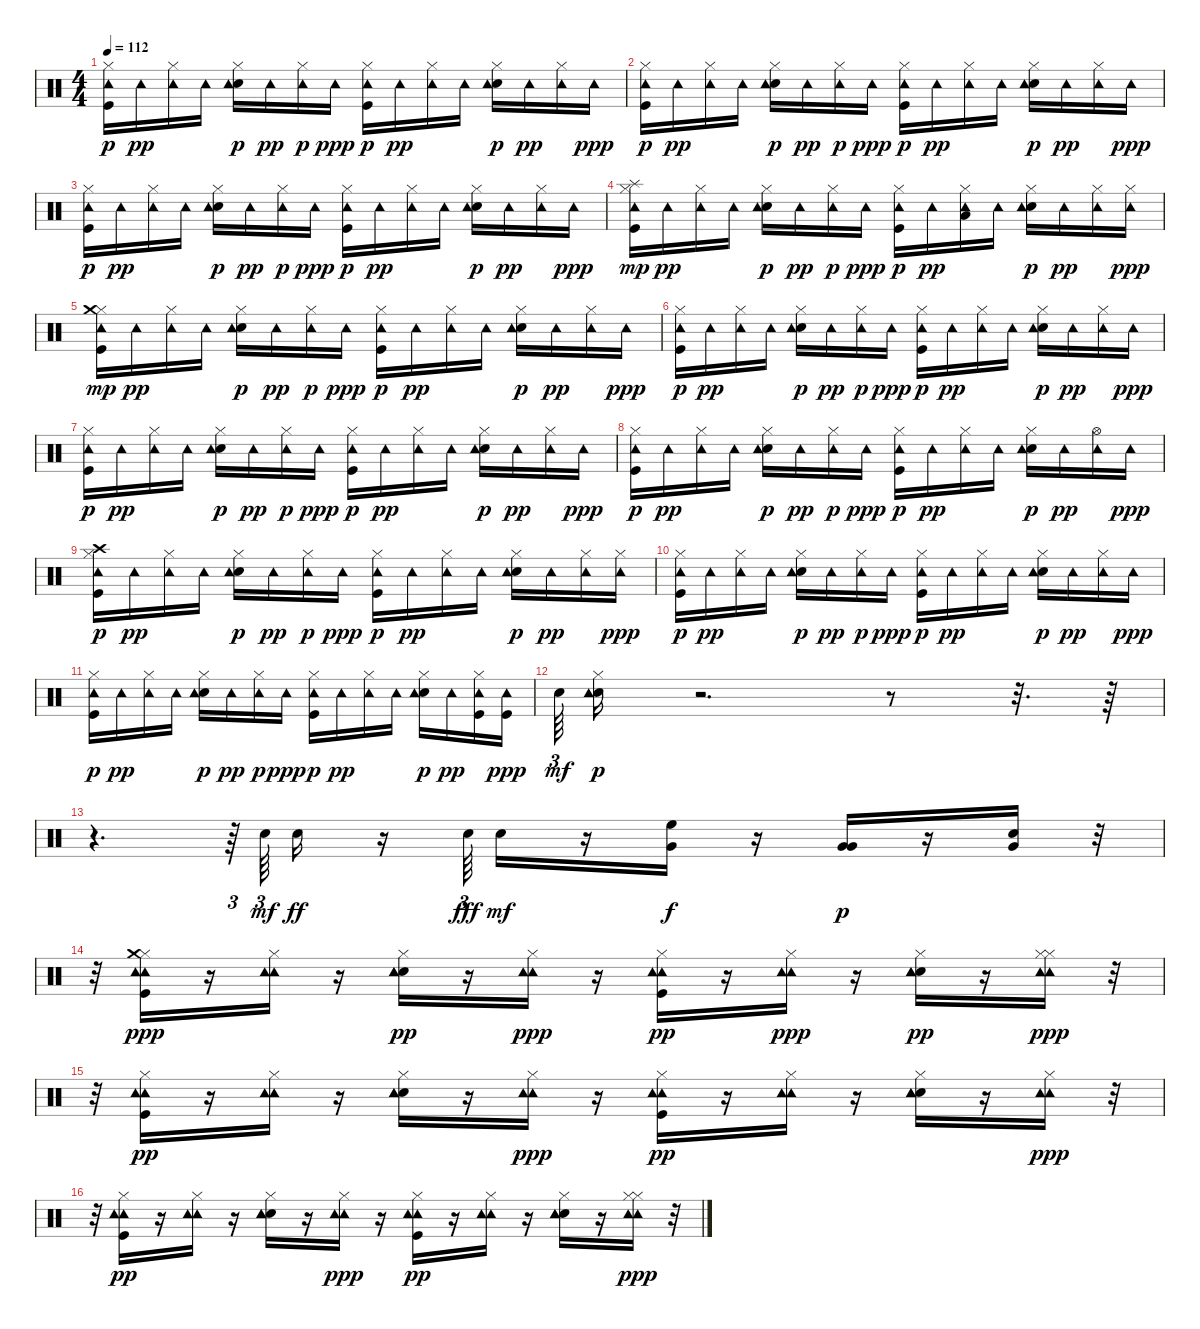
\track "" {instrument percussion}
\staff {score}
\articulation defaults
\ts (4 4)
\tempo 112
\clef neutral
\ks c
("Kick (hit)" "Hi-Hat (closed)" "Tambourine (hit)").16{dy p} "Tambourine (hit)".16{dy pp} ("Hi-Hat (closed)" "Tambourine (hit)").16 "Tambourine (hit)".16 ("Electric Snare (hit)" "Hi-Hat (closed)" "Tambourine (hit)").16{dy p} "Tambourine (hit)".16{dy pp} ("Hi-Hat (closed)" "Tambourine (hit)").16{dy p} "Tambourine (hit)".16{dy ppp} ("Kick (hit)" "Hi-Hat (closed)" "Tambourine (hit)").16{dy p} "Tambourine (hit)".16{dy pp} ("Hi-Hat (closed)" "Tambourine (hit)").16 "Tambourine (hit)".16 ("Electric Snare (hit)" "Hi-Hat (closed)" "Tambourine (hit)").16{dy p} "Tambourine (hit)".16{dy pp} ("Hi-Hat (closed)" "Tambourine (hit)").16 "Tambourine (hit)".16{dy ppp} |
("Kick (hit)" "Hi-Hat (closed)" "Tambourine (hit)").16{dy p} "Tambourine (hit)".16{dy pp} ("Hi-Hat (closed)" "Tambourine (hit)").16 "Tambourine (hit)".16 ("Electric Snare (hit)" "Hi-Hat (closed)" "Tambourine (hit)").16{dy p} "Tambourine (hit)".16{dy pp} ("Hi-Hat (closed)" "Tambourine (hit)").16{dy p} "Tambourine (hit)".16{dy ppp} ("Kick (hit)" "Hi-Hat (closed)" "Tambourine (hit)").16{dy p} "Tambourine (hit)".16{dy pp} ("Hi-Hat (closed)" "Tambourine (hit)").16 "Tambourine (hit)".16 ("Electric Snare (hit)" "Hi-Hat (closed)" "Tambourine (hit)").16{dy p} "Tambourine (hit)".16{dy pp} ("Hi-Hat (closed)" "Tambourine (hit)").16 "Tambourine (hit)".16{dy ppp} |
("Kick (hit)" "Hi-Hat (closed)" "Tambourine (hit)").16{dy p} "Tambourine (hit)".16{dy pp} ("Hi-Hat (closed)" "Tambourine (hit)").16 "Tambourine (hit)".16 ("Electric Snare (hit)" "Hi-Hat (closed)" "Tambourine (hit)").16{dy p} "Tambourine (hit)".16{dy pp} ("Hi-Hat (closed)" "Tambourine (hit)").16{dy p} "Tambourine (hit)".16{dy ppp} ("Kick (hit)" "Hi-Hat (closed)" "Tambourine (hit)").16{dy p} "Tambourine (hit)".16{dy pp} ("Hi-Hat (closed)" "Tambourine (hit)").16 "Tambourine (hit)".16 ("Electric Snare (hit)" "Hi-Hat (closed)" "Tambourine (hit)").16{dy p} "Tambourine (hit)".16{dy pp} ("Hi-Hat (closed)" "Tambourine (hit)").16 "Tambourine (hit)".16{dy ppp} |
("Kick (hit)" "Hi-Hat (closed)" "Tambourine (hit)" "Splash (hit)").16{dy mp} "Tambourine (hit)".16{dy pp} ("Hi-Hat (closed)" "Tambourine (hit)").16 "Tambourine (hit)".16 ("Electric Snare (hit)" "Hi-Hat (closed)" "Tambourine (hit)").16{dy p} "Tambourine (hit)".16{dy pp} ("Hi-Hat (closed)" "Tambourine (hit)").16{dy p} "Tambourine (hit)".16{dy ppp} ("Kick (hit)" "Hi-Hat (closed)" "Tambourine (hit)").16{dy p} "Tambourine (hit)".16{dy pp} ("Hi-Hat (closed)" "Low Tom (hit)" "Tambourine (hit)").16 "Tambourine (hit)".16 ("Electric Snare (hit)" "Hi-Hat (closed)" "Tambourine (hit)").16{dy p} "Tambourine (hit)".16{dy pp} ("Hi-Hat (closed)" "Tambourine (hit)").16 ("Hi-Hat (closed)" "Tambourine (hit)").16{dy ppp} |
("Kick (hit)" "Hi-Hat (closed)" "Tambourine (hit)" "Crash medium (hit)").16{dy mp} "Tambourine (hit)".16{dy pp} ("Hi-Hat (closed)" "Tambourine (hit)").16 "Tambourine (hit)".16 ("Electric Snare (hit)" "Hi-Hat (closed)" "Tambourine (hit)").16{dy p} "Tambourine (hit)".16{dy pp} ("Hi-Hat (closed)" "Tambourine (hit)").16{dy p} "Tambourine (hit)".16{dy ppp} ("Kick (hit)" "Hi-Hat (closed)" "Tambourine (hit)").16{dy p} "Tambourine (hit)".16{dy pp} ("Hi-Hat (closed)" "Tambourine (hit)").16 "Tambourine (hit)".16 ("Electric Snare (hit)" "Hi-Hat (closed)" "Tambourine (hit)").16{dy p} "Tambourine (hit)".16{dy pp} ("Hi-Hat (closed)" "Tambourine (hit)").16 "Tambourine (hit)".16{dy ppp} |
("Kick (hit)" "Hi-Hat (closed)" "Tambourine (hit)").16{dy p} "Tambourine (hit)".16{dy pp} ("Hi-Hat (closed)" "Tambourine (hit)").16 "Tambourine (hit)".16 ("Electric Snare (hit)" "Hi-Hat (closed)" "Tambourine (hit)").16{dy p} "Tambourine (hit)".16{dy pp} ("Hi-Hat (closed)" "Tambourine (hit)").16{dy p} "Tambourine (hit)".16{dy ppp} ("Kick (hit)" "Hi-Hat (closed)" "Tambourine (hit)").16{dy p} "Tambourine (hit)".16{dy pp} ("Hi-Hat (closed)" "Tambourine (hit)").16 "Tambourine (hit)".16 ("Electric Snare (hit)" "Hi-Hat (closed)" "Tambourine (hit)").16{dy p} "Tambourine (hit)".16{dy pp} ("Hi-Hat (closed)" "Tambourine (hit)").16 "Tambourine (hit)".16{dy ppp} |
("Kick (hit)" "Hi-Hat (closed)" "Tambourine (hit)").16{dy p} "Tambourine (hit)".16{dy pp} ("Hi-Hat (closed)" "Tambourine (hit)").16 "Tambourine (hit)".16 ("Electric Snare (hit)" "Hi-Hat (closed)" "Tambourine (hit)").16{dy p} "Tambourine (hit)".16{dy pp} ("Hi-Hat (closed)" "Tambourine (hit)").16{dy p} "Tambourine (hit)".16{dy ppp} ("Kick (hit)" "Hi-Hat (closed)" "Tambourine (hit)").16{dy p} "Tambourine (hit)".16{dy pp} ("Hi-Hat (closed)" "Tambourine (hit)").16 "Tambourine (hit)".16 ("Electric Snare (hit)" "Hi-Hat (closed)" "Tambourine (hit)").16{dy p} "Tambourine (hit)".16{dy pp} ("Hi-Hat (closed)" "Tambourine (hit)").16 "Tambourine (hit)".16{dy ppp} |
("Kick (hit)" "Hi-Hat (closed)" "Tambourine (hit)").16{dy p} "Tambourine (hit)".16{dy pp} ("Hi-Hat (closed)" "Tambourine (hit)").16 "Tambourine (hit)".16 ("Electric Snare (hit)" "Hi-Hat (closed)" "Tambourine (hit)").16{dy p} "Tambourine (hit)".16{dy pp} ("Hi-Hat (closed)" "Tambourine (hit)").16{dy p} "Tambourine (hit)".16{dy ppp} ("Kick (hit)" "Hi-Hat (closed)" "Tambourine (hit)").16{dy p} "Tambourine (hit)".16{dy pp} ("Hi-Hat (closed)" "Tambourine (hit)").16 "Tambourine (hit)".16 ("Electric Snare (hit)" "Hi-Hat (closed)" "Tambourine (hit)").16{dy p} "Tambourine (hit)".16{dy pp} ("Hi-Hat (open)" "Tambourine (hit)").16 "Tambourine (hit)".16{dy ppp} |
("Kick (hit)" "Hi-Hat (closed)" "Crash high (hit)" "Tambourine (hit)").16{dy p} "Tambourine (hit)".16{dy pp} ("Hi-Hat (closed)" "Tambourine (hit)").16 "Tambourine (hit)".16 ("Electric Snare (hit)" "Hi-Hat (closed)" "Tambourine (hit)").16{dy p} "Tambourine (hit)".16{dy pp} ("Hi-Hat (closed)" "Tambourine (hit)").16{dy p} "Tambourine (hit)".16{dy ppp} ("Kick (hit)" "Hi-Hat (closed)" "Tambourine (hit)").16{dy p} "Tambourine (hit)".16{dy pp} ("Hi-Hat (closed)" "Tambourine (hit)").16 "Tambourine (hit)".16 ("Electric Snare (hit)" "Hi-Hat (closed)" "Tambourine (hit)").16{dy p} "Tambourine (hit)".16{dy pp} ("Hi-Hat (closed)" "Tambourine (hit)").16 ("Hi-Hat (closed)" "Tambourine (hit)").16{dy ppp} |
("Kick (hit)" "Hi-Hat (closed)" "Tambourine (hit)").16{dy p} "Tambourine (hit)".16{dy pp} ("Hi-Hat (closed)" "Tambourine (hit)").16 "Tambourine (hit)".16 ("Electric Snare (hit)" "Hi-Hat (closed)" "Tambourine (hit)").16{dy p} "Tambourine (hit)".16{dy pp} ("Hi-Hat (closed)" "Tambourine (hit)").16{dy p} "Tambourine (hit)".16{dy ppp} ("Kick (hit)" "Hi-Hat (closed)" "Tambourine (hit)").16{dy p} "Tambourine (hit)".16{dy pp} ("Hi-Hat (closed)" "Tambourine (hit)").16 "Tambourine (hit)".16 ("Electric Snare (hit)" "Hi-Hat (closed)" "Tambourine (hit)").16{dy p} "Tambourine (hit)".16{dy pp} ("Hi-Hat (closed)" "Tambourine (hit)").16 "Tambourine (hit)".16{dy ppp} |
("Kick (hit)" "Hi-Hat (closed)" "Tambourine (hit)").16{dy p} "Tambourine (hit)".16{dy pp} ("Hi-Hat (closed)" "Tambourine (hit)").16 "Tambourine (hit)".16 ("Electric Snare (hit)" "Hi-Hat (closed)" "Tambourine (hit)").16{dy p} "Tambourine (hit)".16{dy pp} ("Hi-Hat (closed)" "Tambourine (hit)").16{dy p} "Tambourine (hit)".16{dy ppp} ("Kick (hit)" "Hi-Hat (closed)" "Tambourine (hit)").16{dy p} "Tambourine (hit)".16{dy pp} ("Hi-Hat (closed)" "Tambourine (hit)").16 "Tambourine (hit)".16 ("Electric Snare (hit)" "Hi-Hat (closed)" "Tambourine (hit)").16{dy p} "Tambourine (hit)".16{dy pp} ("Kick (hit)" "Hi-Hat (closed)" "Tambourine (hit)").16 ("Kick (hit)" "Tambourine (hit)").16{dy ppp} |
"Electric Snare (hit)".64{tu (3 2) dy mf} ("Electric Snare (hit)" "Hi-Hat (closed)" "Tambourine (hit)").16{dy p} r.2{d} r.8 r.32{d} r.64 |
r.4{d} r.64{tu (3 2)} "Electric Snare (hit)".64{tu (3 2) dy mf} "Electric Snare (hit)".16{dy ff} r.16 "Electric Snare (hit)".64{tu (3 2) dy fff} "Electric Snare (hit)".16{dy mf} r.16 ("Very Low Tom (hit)" "High Floor Tom (hit)").16{dy f} r.16 ("Very Low Tom (hit)" "Very Low Tom (hit)").16{dy p} r.16 ("Electric Snare (hit)" "Very Low Tom (hit)").16 r.32 |
r.32 ("Kick (hit)" "Hi-Hat (closed)" "Tambourine (hit)" "Crash medium (hit)" "Tambourine (hit)").16{dy ppp} r.16 ("Hi-Hat (closed)" "Tambourine (hit)" "Tambourine (hit)").16 r.16 ("Electric Snare (hit)" "Hi-Hat (closed)" "Tambourine (hit)" "Tambourine (hit)").16{dy pp} r.16 ("Hi-Hat (closed)" "Tambourine (hit)" "Tambourine (hit)").16{dy ppp} r.16 ("Kick (hit)" "Hi-Hat (closed)" "Tambourine (hit)" "Tambourine (hit)").16{dy pp} r.16 ("Hi-Hat (closed)" "Tambourine (hit)" "Tambourine (hit)").16{dy ppp} r.16 ("Electric Snare (hit)" "Hi-Hat (closed)" "Tambourine (hit)" "Tambourine (hit)").16{dy pp} r.16 ("Hi-Hat (closed)" "Tambourine (hit)" "Hi-Hat (closed)" "Tambourine (hit)").16{dy ppp} r.32 |
r.32 ("Kick (hit)" "Hi-Hat (closed)" "Tambourine (hit)" "Tambourine (hit)").16{dy pp} r.16 ("Hi-Hat (closed)" "Tambourine (hit)" "Tambourine (hit)").16 r.16 ("Electric Snare (hit)" "Hi-Hat (closed)" "Tambourine (hit)" "Tambourine (hit)").16 r.16 ("Hi-Hat (closed)" "Tambourine (hit)" "Tambourine (hit)").16{dy ppp} r.16 ("Kick (hit)" "Hi-Hat (closed)" "Tambourine (hit)" "Tambourine (hit)").16{dy pp} r.16 ("Hi-Hat (closed)" "Tambourine (hit)" "Tambourine (hit)").16 r.16 ("Electric Snare (hit)" "Hi-Hat (closed)" "Tambourine (hit)" "Tambourine (hit)").16 r.16 ("Hi-Hat (closed)" "Tambourine (hit)" "Tambourine (hit)").16{dy ppp} r.32 |
r.32 ("Kick (hit)" "Hi-Hat (closed)" "Tambourine (hit)" "Tambourine (hit)").16{dy pp} r.16 ("Hi-Hat (closed)" "Tambourine (hit)" "Tambourine (hit)").16 r.16 ("Electric Snare (hit)" "Hi-Hat (closed)" "Tambourine (hit)" "Tambourine (hit)").16 r.16 ("Hi-Hat (closed)" "Tambourine (hit)" "Tambourine (hit)").16{dy ppp} r.16 ("Kick (hit)" "Hi-Hat (closed)" "Tambourine (hit)" "Tambourine (hit)").16{dy pp} r.16 ("Hi-Hat (closed)" "Tambourine (hit)" "Tambourine (hit)").16 r.16 ("Electric Snare (hit)" "Hi-Hat (closed)" "Tambourine (hit)" "Tambourine (hit)").16 r.16 ("Hi-Hat (closed)" "Tambourine (hit)" "Hi-Hat (closed)" "Tambourine (hit)").16{dy ppp} r.32
